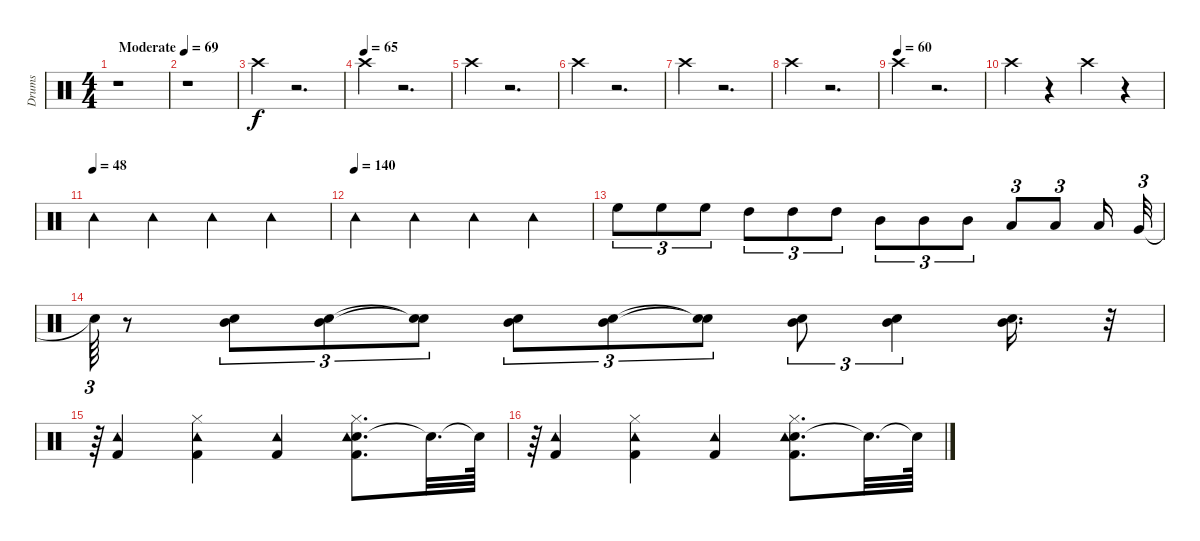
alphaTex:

\track ("Drums" "Drums") {instrument percussion}
\staff {score}
\articulation defaults
\ts (4 4)
\tempo (69 "Moderate")
\clef neutral
\ks c
r.1{dy f} |
r.1 |
"Crash high (hit)".4 r.2{d} |
\tempo (65)
"Crash high (hit)".4 r.2{d} |
"Crash high (hit)".4 r.2{d} |
"Crash high (hit)".4 r.2{d} |
"Crash high (hit)".4 r.2{d} |
"Crash high (hit)".4 r.2{d} |
\tempo (60)
"Crash high (hit)".4 r.2{d} |
"Crash high (hit)".4 r.4 "Crash high (hit)".4 r.4 |
\tempo (48)
"Tambourine (hit)".4 "Tambourine (hit)".4 "Tambourine (hit)".4 "Tambourine (hit)".4 |
\tempo (140)
"Tambourine (hit)".4 "Tambourine (hit)".4 "Tambourine (hit)".4 "Tambourine (hit)".4 |
"High Floor Tom (hit)".8{tu (3 2)} "High Floor Tom (hit)".8{tu (3 2)} "High Floor Tom (hit)".8{tu (3 2)} "High Tom (hit)".8{tu (3 2)} "High Tom (hit)".8{tu (3 2)} "High Tom (hit)".8{tu (3 2)} "Mid Tom (hit)".8{tu (3 2)} "Mid Tom (hit)".8{tu (3 2)} "Mid Tom (hit)".8{tu (3 2)} "Low Tom (hit)".8{tu (3 2)} "Low Tom (hit)".8{tu (3 2)} "Low Tom (hit)".16 "Very Low Tom (hit)".32{tu (3 2)} |
"Snare (hit)"{t}.64{tu (3 2)} r.8 ("Mid Tom (hit)" "Electric Snare (hit)").8{tu (3 2)} ("Mid Tom (hit)" "Electric Snare (hit)").8{tu (3 2)} ("Snare (hit)"{t} "Snare (hit)"{t}).8{tu (3 2)} ("Mid Tom (hit)" "Electric Snare (hit)").8{tu (3 2)} ("Mid Tom (hit)" "Electric Snare (hit)").8{tu (3 2)} ("Snare (hit)"{t} "Snare (hit)"{t}).8{tu (3 2)} ("Mid Tom (hit)" "Electric Snare (hit)").8{tu (3 2)} ("Mid Tom (hit)" "Electric Snare (hit)").4{tu (3 2)} ("Mid Tom (hit)" "Electric Snare (hit)").16{d} r.32{tu (3 2)} |
r.64{tu (3 2)} ("Tambourine (hit)" "Kick (hit) 2").4 ("Hi-Hat (closed)" "Tambourine (hit)" "Kick (hit) 2").4 ("Tambourine (hit)" "Kick (hit) 2").4 ("Electric Snare (hit)" "Hi-Hat (closed)" "Tambourine (hit)" "Kick (hit) 2").8{d} "Snare (hit)"{t}.32{d} "Snare (hit)"{t}.64 |
r.64{tu (3 2)} ("Tambourine (hit)" "Kick (hit) 2").4 ("Hi-Hat (closed)" "Tambourine (hit)" "Kick (hit) 2").4 ("Tambourine (hit)" "Kick (hit) 2").4 ("Electric Snare (hit)" "Hi-Hat (closed)" "Tambourine (hit)" "Kick (hit) 2").8{d} "Snare (hit)"{t}.32{d} "Snare (hit)"{t}.64
